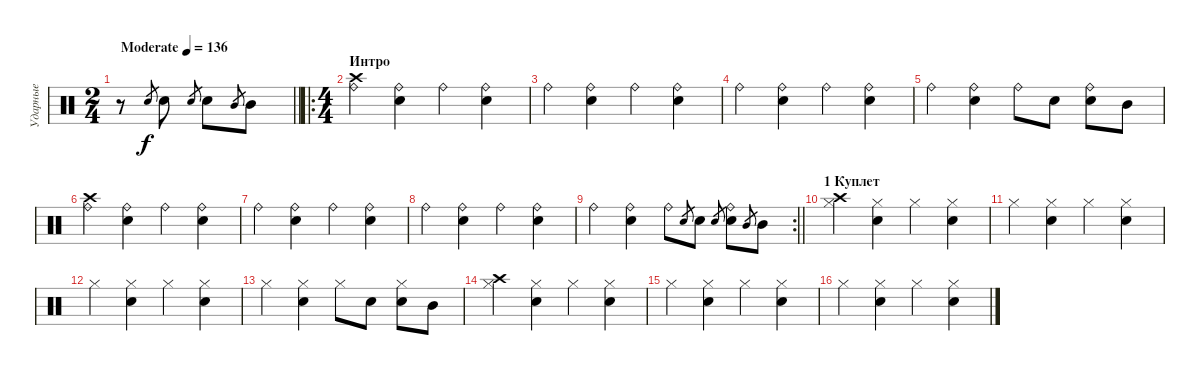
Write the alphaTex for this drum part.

\track ("Ударные" "Ударные") {instrument percussion}
\staff {score}
\articulation defaults
\ts (2 4)
\tempo (136 "Moderate")
\clef neutral
\barLineRight lightlight
\ks c
r.8{dy f} "Snare (hit) 2".8{gr} "Snare (hit) 2".8 "Snare (hit) 2".8{gr} "Snare (hit) 2".8 "Mid Tom (hit)".8{gr} "Mid Tom (hit)".8 |
\ro
\ts (4 4)
\section ("" "Интро")
("Ride (bell)" "Crash high (hit)").4 ("Ride (bell)" "Snare (hit) 2").4 "Ride (bell)".4 ("Ride (bell)" "Snare (hit) 2").4 |
"Ride (bell)".4 ("Ride (bell)" "Snare (hit) 2").4 "Ride (bell)".4 ("Ride (bell)" "Snare (hit) 2").4 |
"Ride (bell)".4 ("Ride (bell)" "Snare (hit) 2").4 "Ride (bell)".4 ("Ride (bell)" "Snare (hit) 2").4 |
"Ride (bell)".4 ("Ride (bell)" "Snare (hit) 2").4 "Ride (bell)".8 "Snare (hit) 2".8 ("Ride (bell)" "Snare (hit) 2").8 "Mid Tom (hit)".8 |
("Ride (bell)" "Crash high (hit)").4 ("Ride (bell)" "Snare (hit) 2").4 "Ride (bell)".4 ("Ride (bell)" "Snare (hit) 2").4 |
"Ride (bell)".4 ("Ride (bell)" "Snare (hit) 2").4 "Ride (bell)".4 ("Ride (bell)" "Snare (hit) 2").4 |
"Ride (bell)".4 ("Ride (bell)" "Snare (hit) 2").4 "Ride (bell)".4 ("Ride (bell)" "Snare (hit) 2").4 |
\rc 2
\barLineRight lightlight "Ride (bell)".4
("Ride (bell)" "Snare (hit) 2").4 "Ride (bell)".8 "Snare (hit) 2".8{gr} "Snare (hit) 2".8 "Snare (hit) 2".8{gr} ("Ride (bell)" "Snare (hit) 2").8 "Mid Tom (hit)".8{gr} "Mid Tom (hit)".8 |
\section ("" "1 Куплет")
("Hi-Hat (closed)" "Crash high (hit)").4 ("Hi-Hat (closed)" "Snare (hit) 2").4 "Hi-Hat (closed)".4 ("Hi-Hat (closed)" "Snare (hit) 2").4 |
"Hi-Hat (closed)".4 ("Hi-Hat (closed)" "Snare (hit) 2").4 "Hi-Hat (closed)".4 ("Hi-Hat (closed)" "Snare (hit) 2").4 |
"Hi-Hat (closed)".4 ("Hi-Hat (closed)" "Snare (hit) 2").4 "Hi-Hat (closed)".4 ("Hi-Hat (closed)" "Snare (hit) 2").4 |
"Hi-Hat (closed)".4 ("Hi-Hat (closed)" "Snare (hit) 2").4 "Hi-Hat (closed)".8 "Snare (hit) 2".8 ("Hi-Hat (closed)" "Snare (hit) 2").8 "Mid Tom (hit)".8 |
("Hi-Hat (closed)" "Crash high (hit)").4 ("Hi-Hat (closed)" "Snare (hit) 2").4 "Hi-Hat (closed)".4 ("Hi-Hat (closed)" "Snare (hit) 2").4 |
"Hi-Hat (closed)".4 ("Hi-Hat (closed)" "Snare (hit) 2").4 "Hi-Hat (closed)".4 ("Hi-Hat (closed)" "Snare (hit) 2").4 |
"Hi-Hat (closed)".4 ("Hi-Hat (closed)" "Snare (hit) 2").4 "Hi-Hat (closed)".4 ("Hi-Hat (closed)" "Snare (hit) 2").4
